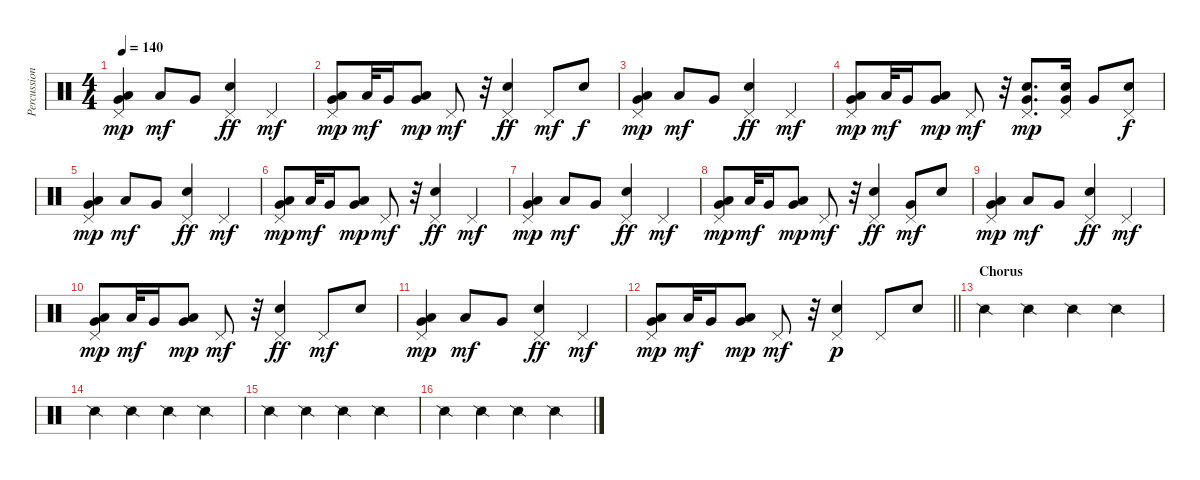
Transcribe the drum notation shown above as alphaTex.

\track ("Percussion" "Percussion") {instrument percussion}
\staff {score}
\articulation defaults
\ts (4 4)
\tempo 140
\clef neutral
\ks c
("Pedal Hi-Hat (hit)" "Very Low Tom (hit)" "Low Floor Tom (hit)").4{dy mp} "Low Floor Tom (hit)".8{dy mf} "Very Low Tom (hit)".8 ("Pedal Hi-Hat (hit)" "Snare (hit) 2").4{dy ff} "Pedal Hi-Hat (hit)".4{dy mf} |
("Pedal Hi-Hat (hit)" "Very Low Tom (hit)" "Low Floor Tom (hit)").8{dy mp} "Low Floor Tom (hit)".32{dy mf} "Very Low Tom (hit)".16 ("Very Low Tom (hit)" "Low Floor Tom (hit)").8{dy mp} "Pedal Hi-Hat (hit)".8{dy mf} r.32 ("Pedal Hi-Hat (hit)" "Snare (hit) 2").4{dy ff} "Pedal Hi-Hat (hit)".8{dy mf} "Snare (hit) 2".8{dy f} |
("Pedal Hi-Hat (hit)" "Very Low Tom (hit)" "Low Floor Tom (hit)").4{dy mp} "Low Floor Tom (hit)".8{dy mf} "Very Low Tom (hit)".8 ("Pedal Hi-Hat (hit)" "Snare (hit) 2").4{dy ff} "Pedal Hi-Hat (hit)".4{dy mf} |
("Pedal Hi-Hat (hit)" "Very Low Tom (hit)" "Low Floor Tom (hit)").8{dy mp} "Low Floor Tom (hit)".32{dy mf} "Very Low Tom (hit)".16 ("Very Low Tom (hit)" "Low Floor Tom (hit)").8{dy mp} "Pedal Hi-Hat (hit)".8{dy mf} r.32 ("Pedal Hi-Hat (hit)" "Snare (hit) 2" "Very Low Tom (hit)").8{d dy mp} ("Pedal Hi-Hat (hit)" "Snare (hit) 2" "Very Low Tom (hit)").16 "Very Low Tom (hit)".8 ("Pedal Hi-Hat (hit)" "Snare (hit) 2").8{dy f} |
("Pedal Hi-Hat (hit)" "Very Low Tom (hit)" "Low Floor Tom (hit)").4{dy mp} "Low Floor Tom (hit)".8{dy mf} "Very Low Tom (hit)".8 ("Pedal Hi-Hat (hit)" "Snare (hit) 2").4{dy ff} "Pedal Hi-Hat (hit)".4{dy mf} |
("Pedal Hi-Hat (hit)" "Very Low Tom (hit)" "Low Floor Tom (hit)").8{dy mp} "Low Floor Tom (hit)".32{dy mf} "Very Low Tom (hit)".16 ("Very Low Tom (hit)" "Low Floor Tom (hit)").8{dy mp} "Pedal Hi-Hat (hit)".8{dy mf} r.32 ("Pedal Hi-Hat (hit)" "Snare (hit) 2").4{dy ff} "Pedal Hi-Hat (hit)".4{dy mf} |
("Pedal Hi-Hat (hit)" "Very Low Tom (hit)" "Low Floor Tom (hit)").4{dy mp} "Low Floor Tom (hit)".8{dy mf} "Very Low Tom (hit)".8 ("Pedal Hi-Hat (hit)" "Snare (hit) 2").4{dy ff} "Pedal Hi-Hat (hit)".4{dy mf} |
("Pedal Hi-Hat (hit)" "Very Low Tom (hit)" "Low Floor Tom (hit)").8{dy mp} "Low Floor Tom (hit)".32{dy mf} "Very Low Tom (hit)".16 ("Very Low Tom (hit)" "Low Floor Tom (hit)").8{dy mp} "Pedal Hi-Hat (hit)".8{dy mf} r.32 ("Pedal Hi-Hat (hit)" "Snare (hit) 2").4{dy ff} ("Pedal Hi-Hat (hit)" "Very Low Tom (hit)").8{dy mf} "Snare (hit) 2".8 |
("Pedal Hi-Hat (hit)" "Very Low Tom (hit)" "Low Floor Tom (hit)").4{dy mp} "Low Floor Tom (hit)".8{dy mf} "Very Low Tom (hit)".8 ("Pedal Hi-Hat (hit)" "Snare (hit) 2").4{dy ff} "Pedal Hi-Hat (hit)".4{dy mf} |
("Pedal Hi-Hat (hit)" "Very Low Tom (hit)" "Low Floor Tom (hit)").8{dy mp} "Low Floor Tom (hit)".32{dy mf} "Very Low Tom (hit)".16 ("Very Low Tom (hit)" "Low Floor Tom (hit)").8{dy mp} "Pedal Hi-Hat (hit)".8{dy mf} r.32 ("Pedal Hi-Hat (hit)" "Snare (hit) 2").4{dy ff} "Pedal Hi-Hat (hit)".8{dy mf} "Snare (hit) 2".8 |
("Pedal Hi-Hat (hit)" "Very Low Tom (hit)" "Low Floor Tom (hit)").4{dy mp} "Low Floor Tom (hit)".8{dy mf} "Very Low Tom (hit)".8 ("Pedal Hi-Hat (hit)" "Snare (hit) 2").4{dy ff} "Pedal Hi-Hat (hit)".4{dy mf} |
\barLineRight lightlight
("Pedal Hi-Hat (hit)" "Very Low Tom (hit)" "Low Floor Tom (hit)").8{dy mp} "Low Floor Tom (hit)".32{dy mf} "Very Low Tom (hit)".16 ("Very Low Tom (hit)" "Low Floor Tom (hit)").8{dy mp} "Pedal Hi-Hat (hit)".8{dy mf} r.32 ("Pedal Hi-Hat (hit)" "Snare (hit) 2").4{dy p} "Pedal Hi-Hat (hit)".8 "Snare (hit) 2".8 |
\section ("" "Chorus")
"Snare (side stick) 2".4 "Snare (side stick) 2".4 "Snare (side stick) 2".4 "Snare (side stick) 2".4 |
"Snare (side stick) 2".4 "Snare (side stick) 2".4 "Snare (side stick) 2".4 "Snare (side stick) 2".4 |
"Snare (side stick) 2".4 "Snare (side stick) 2".4 "Snare (side stick) 2".4 "Snare (side stick) 2".4 |
"Snare (side stick) 2".4 "Snare (side stick) 2".4 "Snare (side stick) 2".4 "Snare (side stick) 2".4
